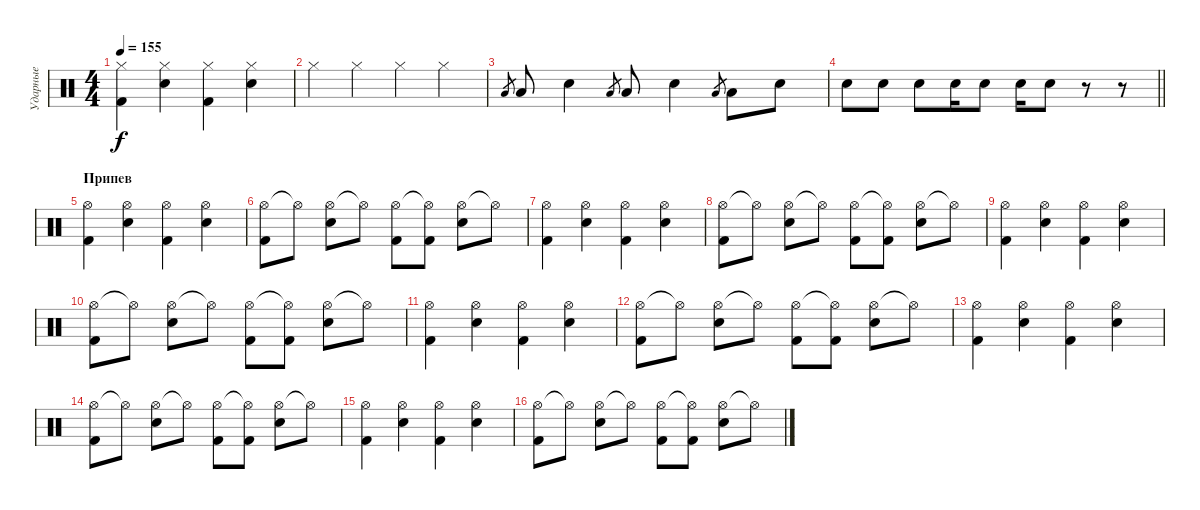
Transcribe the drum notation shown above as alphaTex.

\track ("Ударные" "Ударные") {solo instrument percussion}
\staff {score}
\articulation defaults
\ts (4 4)
\tempo 155
\clef neutral
\ks c
("Hi-Hat (closed)" "Kick (hit) 2").4{dy f} ("Hi-Hat (closed)" "Electric Snare (hit)").4 ("Hi-Hat (closed)" "Kick (hit) 2").4 ("Hi-Hat (closed)" "Electric Snare (hit)").4 |
"Hi-Hat (closed)".4 "Hi-Hat (closed)".4 "Hi-Hat (closed)".4 "Hi-Hat (closed)".4 |
"Low Tom (hit)".8{gr} "Low Tom (hit)".8 "Electric Snare (hit)".4 "Low Tom (hit)".8{gr} "Low Tom (hit)".8 "Electric Snare (hit)".4 "Low Tom (hit)".8{gr} "Low Tom (hit)".8 "Electric Snare (hit)".8 |
\barLineRight lightlight "Electric Snare (hit)".8 "Electric Snare (hit)".8 "Electric Snare (hit)".8 "Electric Snare (hit)".16 "Electric Snare (hit)".8 "Electric Snare (hit)".16 "Electric Snare (hit)".8
r.8 r.8 |
\section ("" "Припев")
("Hi-Hat (open)" "Kick (hit) 2").4 ("Hi-Hat (open)" "Electric Snare (hit)").4 ("Hi-Hat (open)" "Kick (hit) 2").4 ("Hi-Hat (open)" "Electric Snare (hit)").4 |
("Hi-Hat (open)" "Kick (hit) 2").8 "Hi-Hat (open)"{t}.8 ("Hi-Hat (open)" "Electric Snare (hit)").8 "Hi-Hat (open)"{t}.8 ("Hi-Hat (open)" "Kick (hit) 2").8 ("Hi-Hat (open)"{t} "Kick (hit) 2").8 ("Hi-Hat (open)" "Electric Snare (hit)").8 "Hi-Hat (open)"{t}.8 |
("Hi-Hat (open)" "Kick (hit) 2").4 ("Hi-Hat (open)" "Electric Snare (hit)").4 ("Hi-Hat (open)" "Kick (hit) 2").4 ("Hi-Hat (open)" "Electric Snare (hit)").4 |
("Hi-Hat (open)" "Kick (hit) 2").8 "Hi-Hat (open)"{t}.8 ("Hi-Hat (open)" "Electric Snare (hit)").8 "Hi-Hat (open)"{t}.8 ("Hi-Hat (open)" "Kick (hit) 2").8 ("Hi-Hat (open)"{t} "Kick (hit) 2").8 ("Hi-Hat (open)" "Electric Snare (hit)").8 "Hi-Hat (open)"{t}.8 |
("Hi-Hat (open)" "Kick (hit) 2").4 ("Hi-Hat (open)" "Electric Snare (hit)").4 ("Hi-Hat (open)" "Kick (hit) 2").4 ("Hi-Hat (open)" "Electric Snare (hit)").4 |
("Hi-Hat (open)" "Kick (hit) 2").8 "Hi-Hat (open)"{t}.8 ("Hi-Hat (open)" "Electric Snare (hit)").8 "Hi-Hat (open)"{t}.8 ("Hi-Hat (open)" "Kick (hit) 2").8 ("Hi-Hat (open)"{t} "Kick (hit) 2").8 ("Hi-Hat (open)" "Electric Snare (hit)").8 "Hi-Hat (open)"{t}.8 |
("Hi-Hat (open)" "Kick (hit) 2").4 ("Hi-Hat (open)" "Electric Snare (hit)").4 ("Hi-Hat (open)" "Kick (hit) 2").4 ("Hi-Hat (open)" "Electric Snare (hit)").4 |
("Hi-Hat (open)" "Kick (hit) 2").8 "Hi-Hat (open)"{t}.8 ("Hi-Hat (open)" "Electric Snare (hit)").8 "Hi-Hat (open)"{t}.8 ("Hi-Hat (open)" "Kick (hit) 2").8 ("Hi-Hat (open)"{t} "Kick (hit) 2").8 ("Hi-Hat (open)" "Electric Snare (hit)").8 "Hi-Hat (open)"{t}.8 |
("Hi-Hat (open)" "Kick (hit) 2").4 ("Hi-Hat (open)" "Electric Snare (hit)").4 ("Hi-Hat (open)" "Kick (hit) 2").4 ("Hi-Hat (open)" "Electric Snare (hit)").4 |
("Hi-Hat (open)" "Kick (hit) 2").8 "Hi-Hat (open)"{t}.8 ("Hi-Hat (open)" "Electric Snare (hit)").8 "Hi-Hat (open)"{t}.8 ("Hi-Hat (open)" "Kick (hit) 2").8 ("Hi-Hat (open)"{t} "Kick (hit) 2").8 ("Hi-Hat (open)" "Electric Snare (hit)").8 "Hi-Hat (open)"{t}.8 |
("Hi-Hat (open)" "Kick (hit) 2").4 ("Hi-Hat (open)" "Electric Snare (hit)").4 ("Hi-Hat (open)" "Kick (hit) 2").4 ("Hi-Hat (open)" "Electric Snare (hit)").4 |
("Hi-Hat (open)" "Kick (hit) 2").8 "Hi-Hat (open)"{t}.8 ("Hi-Hat (open)" "Electric Snare (hit)").8 "Hi-Hat (open)"{t}.8 ("Hi-Hat (open)" "Kick (hit) 2").8 ("Hi-Hat (open)"{t} "Kick (hit) 2").8 ("Hi-Hat (open)" "Electric Snare (hit)").8 "Hi-Hat (open)"{t}.8
